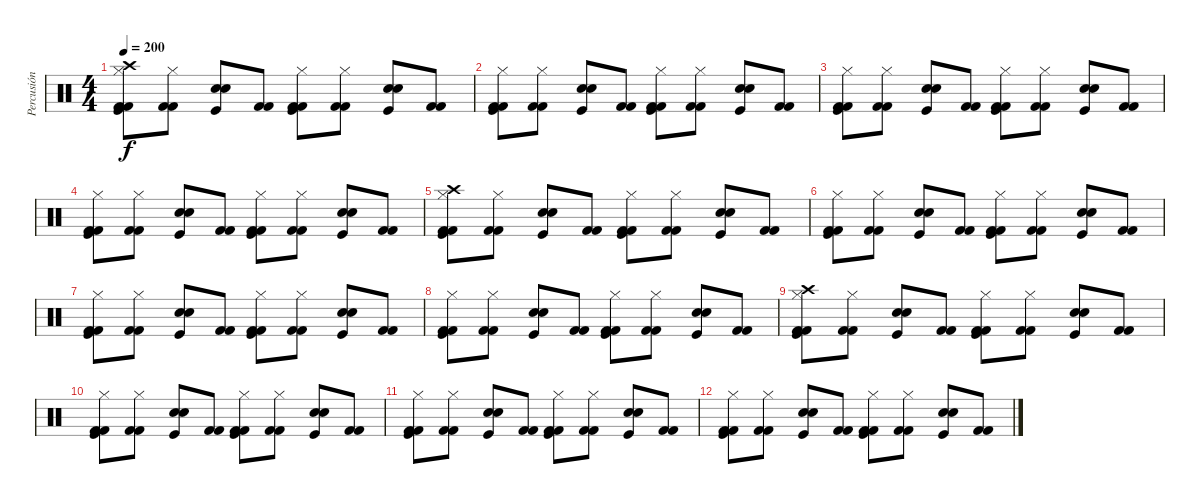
\track ("Percusión" "Percusión") {instrument percussion}
\staff {score}
\articulation defaults
\ts (4 4)
\section ("" "")
\tempo 200
\clef neutral
\ks c
("Kick (hit) 2" "Kick (hit) 2" "Hi-Hat (closed)" "Kick (hit)" "Crash high (hit)").8{dy f} ("Kick (hit) 2" "Kick (hit) 2" "Hi-Hat (closed)").8 ("Electric Snare (hit)" "Electric Snare (hit)" "Kick (hit)").8 ("Kick (hit) 2" "Kick (hit) 2").8 ("Kick (hit) 2" "Kick (hit) 2" "Hi-Hat (closed)" "Kick (hit)").8 ("Kick (hit) 2" "Kick (hit) 2" "Hi-Hat (closed)").8 ("Electric Snare (hit)" "Electric Snare (hit)" "Kick (hit)").8 ("Kick (hit) 2" "Kick (hit) 2").8 |
("Kick (hit) 2" "Kick (hit) 2" "Hi-Hat (closed)" "Kick (hit)").8 ("Kick (hit) 2" "Kick (hit) 2" "Hi-Hat (closed)").8 ("Electric Snare (hit)" "Electric Snare (hit)" "Kick (hit)").8 ("Kick (hit) 2" "Kick (hit) 2").8 ("Kick (hit) 2" "Kick (hit) 2" "Hi-Hat (closed)" "Kick (hit)").8 ("Kick (hit) 2" "Kick (hit) 2" "Hi-Hat (closed)").8 ("Electric Snare (hit)" "Electric Snare (hit)" "Kick (hit)").8 ("Kick (hit) 2" "Kick (hit) 2").8 |
("Kick (hit) 2" "Kick (hit) 2" "Hi-Hat (closed)" "Kick (hit)").8 ("Kick (hit) 2" "Kick (hit) 2" "Hi-Hat (closed)").8 ("Electric Snare (hit)" "Electric Snare (hit)" "Kick (hit)").8 ("Kick (hit) 2" "Kick (hit) 2").8 ("Kick (hit) 2" "Kick (hit) 2" "Hi-Hat (closed)" "Kick (hit)").8 ("Kick (hit) 2" "Kick (hit) 2" "Hi-Hat (closed)").8 ("Electric Snare (hit)" "Electric Snare (hit)" "Kick (hit)").8 ("Kick (hit) 2" "Kick (hit) 2").8 |
("Kick (hit) 2" "Kick (hit) 2" "Hi-Hat (closed)" "Kick (hit)").8 ("Kick (hit) 2" "Kick (hit) 2" "Hi-Hat (closed)").8 ("Electric Snare (hit)" "Electric Snare (hit)" "Kick (hit)").8 ("Kick (hit) 2" "Kick (hit) 2").8 ("Kick (hit) 2" "Kick (hit) 2" "Hi-Hat (closed)" "Kick (hit)").8 ("Kick (hit) 2" "Kick (hit) 2" "Hi-Hat (closed)").8 ("Electric Snare (hit)" "Electric Snare (hit)" "Kick (hit)").8 ("Kick (hit) 2" "Kick (hit) 2").8 |
("Kick (hit) 2" "Kick (hit) 2" "Hi-Hat (closed)" "Kick (hit)" "Crash high (hit)").8 ("Kick (hit) 2" "Kick (hit) 2" "Hi-Hat (closed)").8 ("Electric Snare (hit)" "Electric Snare (hit)" "Kick (hit)").8 ("Kick (hit) 2" "Kick (hit) 2").8 ("Kick (hit) 2" "Kick (hit) 2" "Hi-Hat (closed)" "Kick (hit)").8 ("Kick (hit) 2" "Kick (hit) 2" "Hi-Hat (closed)").8 ("Electric Snare (hit)" "Electric Snare (hit)" "Kick (hit)").8 ("Kick (hit) 2" "Kick (hit) 2").8 |
("Kick (hit) 2" "Kick (hit) 2" "Hi-Hat (closed)" "Kick (hit)").8 ("Kick (hit) 2" "Kick (hit) 2" "Hi-Hat (closed)").8 ("Electric Snare (hit)" "Electric Snare (hit)" "Kick (hit)").8 ("Kick (hit) 2" "Kick (hit) 2").8 ("Kick (hit) 2" "Kick (hit) 2" "Hi-Hat (closed)" "Kick (hit)").8 ("Kick (hit) 2" "Kick (hit) 2" "Hi-Hat (closed)").8 ("Electric Snare (hit)" "Electric Snare (hit)" "Kick (hit)").8 ("Kick (hit) 2" "Kick (hit) 2").8 |
("Kick (hit) 2" "Kick (hit) 2" "Hi-Hat (closed)" "Kick (hit)").8 ("Kick (hit) 2" "Kick (hit) 2" "Hi-Hat (closed)").8 ("Electric Snare (hit)" "Electric Snare (hit)" "Kick (hit)").8 ("Kick (hit) 2" "Kick (hit) 2").8 ("Kick (hit) 2" "Kick (hit) 2" "Hi-Hat (closed)" "Kick (hit)").8 ("Kick (hit) 2" "Kick (hit) 2" "Hi-Hat (closed)").8 ("Electric Snare (hit)" "Electric Snare (hit)" "Kick (hit)").8 ("Kick (hit) 2" "Kick (hit) 2").8 |
("Kick (hit) 2" "Kick (hit) 2" "Hi-Hat (closed)" "Kick (hit)").8 ("Kick (hit) 2" "Kick (hit) 2" "Hi-Hat (closed)").8 ("Electric Snare (hit)" "Electric Snare (hit)" "Kick (hit)").8 ("Kick (hit) 2" "Kick (hit) 2").8 ("Kick (hit) 2" "Kick (hit) 2" "Hi-Hat (closed)" "Kick (hit)").8 ("Kick (hit) 2" "Kick (hit) 2" "Hi-Hat (closed)").8 ("Electric Snare (hit)" "Electric Snare (hit)" "Kick (hit)").8 ("Kick (hit) 2" "Kick (hit) 2").8 |
("Kick (hit) 2" "Kick (hit) 2" "Hi-Hat (closed)" "Kick (hit)" "Crash high (hit)").8 ("Kick (hit) 2" "Kick (hit) 2" "Hi-Hat (closed)").8 ("Electric Snare (hit)" "Electric Snare (hit)" "Kick (hit)").8 ("Kick (hit) 2" "Kick (hit) 2").8 ("Kick (hit) 2" "Kick (hit) 2" "Hi-Hat (closed)" "Kick (hit)").8 ("Kick (hit) 2" "Kick (hit) 2" "Hi-Hat (closed)").8 ("Electric Snare (hit)" "Electric Snare (hit)" "Kick (hit)").8 ("Kick (hit) 2" "Kick (hit) 2").8 |
("Kick (hit) 2" "Kick (hit) 2" "Hi-Hat (closed)" "Kick (hit)").8 ("Kick (hit) 2" "Kick (hit) 2" "Hi-Hat (closed)").8 ("Electric Snare (hit)" "Electric Snare (hit)" "Kick (hit)").8 ("Kick (hit) 2" "Kick (hit) 2").8 ("Kick (hit) 2" "Kick (hit) 2" "Hi-Hat (closed)" "Kick (hit)").8 ("Kick (hit) 2" "Kick (hit) 2" "Hi-Hat (closed)").8 ("Electric Snare (hit)" "Electric Snare (hit)" "Kick (hit)").8 ("Kick (hit) 2" "Kick (hit) 2").8 |
("Kick (hit) 2" "Kick (hit) 2" "Hi-Hat (closed)" "Kick (hit)").8 ("Kick (hit) 2" "Kick (hit) 2" "Hi-Hat (closed)").8 ("Electric Snare (hit)" "Electric Snare (hit)" "Kick (hit)").8 ("Kick (hit) 2" "Kick (hit) 2").8 ("Kick (hit) 2" "Kick (hit) 2" "Hi-Hat (closed)" "Kick (hit)").8 ("Kick (hit) 2" "Kick (hit) 2" "Hi-Hat (closed)").8 ("Electric Snare (hit)" "Electric Snare (hit)" "Kick (hit)").8 ("Kick (hit) 2" "Kick (hit) 2").8 |
("Kick (hit) 2" "Kick (hit) 2" "Hi-Hat (closed)" "Kick (hit)").8 ("Kick (hit) 2" "Kick (hit) 2" "Hi-Hat (closed)").8 ("Electric Snare (hit)" "Electric Snare (hit)" "Kick (hit)").8 ("Kick (hit) 2" "Kick (hit) 2").8 ("Kick (hit) 2" "Kick (hit) 2" "Hi-Hat (closed)" "Kick (hit)").8 ("Kick (hit) 2" "Kick (hit) 2" "Hi-Hat (closed)").8 ("Electric Snare (hit)" "Electric Snare (hit)" "Kick (hit)").8 ("Kick (hit) 2" "Kick (hit) 2").8
